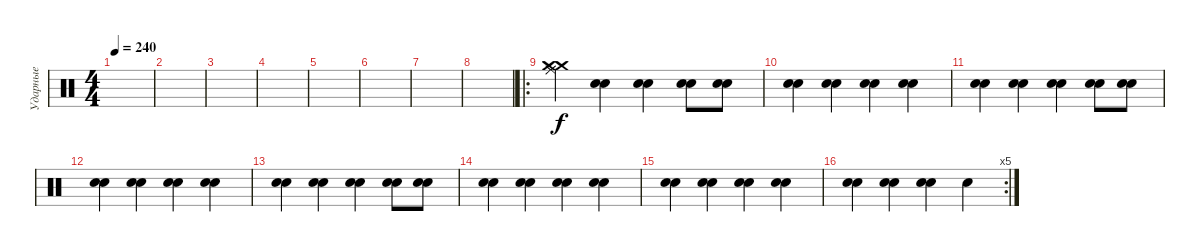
\track ("Ударные" "Ударные") {instrument percussion}
\staff {score}
\articulation defaults
\ts (4 4)
\tempo 240
\clef neutral
\ks c
|
|
|
|
|
|
|
|
\ro
("Crash medium (hit)" "Ride (middle)" "Ride (middle)" "Crash medium (hit)").4 ("Snare (hit) 2" "Snare (hit) 2").4 ("Snare (hit) 2" "Snare (hit) 2").4 ("Snare (hit) 2" "Snare (hit) 2").8 ("Snare (hit) 2" "Snare (hit) 2").8 |
("Snare (hit) 2" "Snare (hit) 2").4 ("Snare (hit) 2" "Snare (hit) 2").4 ("Snare (hit) 2" "Snare (hit) 2").4 ("Snare (hit) 2" "Snare (hit) 2").4 |
("Snare (hit) 2" "Snare (hit) 2").4 ("Snare (hit) 2" "Snare (hit) 2").4 ("Snare (hit) 2" "Snare (hit) 2").4 ("Snare (hit) 2" "Snare (hit) 2").8 ("Snare (hit) 2" "Snare (hit) 2").8 |
("Snare (hit) 2" "Snare (hit) 2").4 ("Snare (hit) 2" "Snare (hit) 2").4 ("Snare (hit) 2" "Snare (hit) 2").4 ("Snare (hit) 2" "Snare (hit) 2").4 |
("Snare (hit) 2" "Snare (hit) 2").4 ("Snare (hit) 2" "Snare (hit) 2").4 ("Snare (hit) 2" "Snare (hit) 2").4 ("Snare (hit) 2" "Snare (hit) 2").8 ("Snare (hit) 2" "Snare (hit) 2").8 |
("Snare (hit) 2" "Snare (hit) 2").4 ("Snare (hit) 2" "Snare (hit) 2").4 ("Snare (hit) 2" "Snare (hit) 2").4 ("Snare (hit) 2" "Snare (hit) 2").4 |
("Snare (hit) 2" "Snare (hit) 2").4 ("Snare (hit) 2" "Snare (hit) 2").4 ("Snare (hit) 2" "Snare (hit) 2").4 ("Snare (hit) 2" "Snare (hit) 2").4 |
\rc 5
("Snare (hit) 2" "Snare (hit) 2").4 ("Snare (hit) 2" "Snare (hit) 2").4 ("Snare (hit) 2" "Snare (hit) 2").4 "Snare (hit) 2".4
